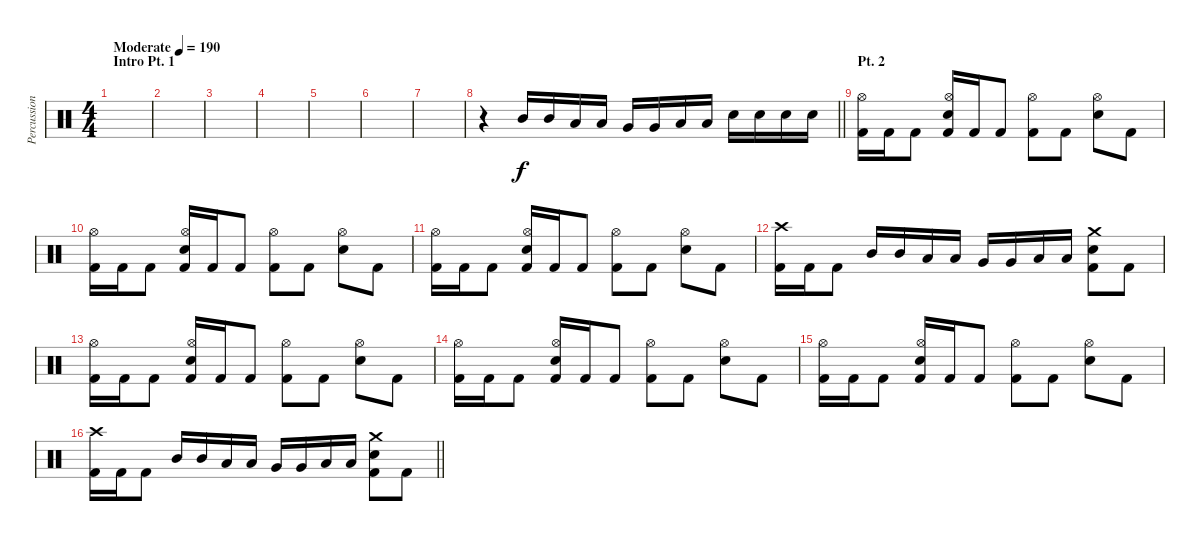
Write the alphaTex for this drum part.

\track ("Percussion" "Percussion") {instrument percussion}
\staff {score}
\articulation defaults
\ts (4 4)
\section ("" "Intro Pt. 1")
\tempo (190 "Moderate")
\clef neutral
\ks c
|
|
|
|
|
|
|
\barLineRight lightlight
r.4 "Mid Tom (hit)".16 "Mid Tom (hit)".16 "Low Tom (hit)".16 "Low Tom (hit)".16 "Very Low Tom (hit)".16 "Very Low Tom (hit)".16 "Low Floor Tom (hit)".16 "Low Floor Tom (hit)".16 "Electric Snare (hit)".16 "Electric Snare (hit)".16 "Electric Snare (hit)".16 "Electric Snare (hit)".16 |
\section ("" "Pt. 2")
("Hi-Hat (open)" "Kick (hit) 2").16 "Kick (hit) 2".16 "Kick (hit) 2".8 ("Hi-Hat (open)" "Electric Snare (hit)" "Kick (hit) 2").16 "Kick (hit) 2".16 "Kick (hit) 2".8 ("Hi-Hat (open)" "Kick (hit) 2").8 "Kick (hit) 2".8 ("Hi-Hat (open)" "Electric Snare (hit)").8 "Kick (hit) 2".8 |
("Hi-Hat (open)" "Kick (hit) 2").16 "Kick (hit) 2".16 "Kick (hit) 2".8 ("Hi-Hat (open)" "Electric Snare (hit)" "Kick (hit) 2").16 "Kick (hit) 2".16 "Kick (hit) 2".8 ("Hi-Hat (open)" "Kick (hit) 2").8 "Kick (hit) 2".8 ("Hi-Hat (open)" "Electric Snare (hit)").8 "Kick (hit) 2".8 |
("Hi-Hat (open)" "Kick (hit) 2").16 "Kick (hit) 2".16 "Kick (hit) 2".8 ("Hi-Hat (open)" "Electric Snare (hit)" "Kick (hit) 2").16 "Kick (hit) 2".16 "Kick (hit) 2".8 ("Hi-Hat (open)" "Kick (hit) 2").8 "Kick (hit) 2".8 ("Hi-Hat (open)" "Electric Snare (hit)").8 "Kick (hit) 2".8 |
("Crash high (hit)" "Kick (hit) 2").16 "Kick (hit) 2".16 "Kick (hit) 2".8 "Mid Tom (hit)".16 "Mid Tom (hit)".16 "Low Tom (hit)".16 "Low Tom (hit)".16 "Very Low Tom (hit)".16 "Very Low Tom (hit)".16 "Low Floor Tom (hit)".16 "Low Floor Tom (hit)".16 ("Crash medium (hit)" "Electric Snare (hit)" "Kick (hit) 2").8 "Kick (hit) 2".8 |
("Hi-Hat (open)" "Kick (hit) 2").16 "Kick (hit) 2".16 "Kick (hit) 2".8 ("Hi-Hat (open)" "Electric Snare (hit)" "Kick (hit) 2").16 "Kick (hit) 2".16 "Kick (hit) 2".8 ("Hi-Hat (open)" "Kick (hit) 2").8 "Kick (hit) 2".8 ("Hi-Hat (open)" "Electric Snare (hit)").8 "Kick (hit) 2".8 |
("Hi-Hat (open)" "Kick (hit) 2").16 "Kick (hit) 2".16 "Kick (hit) 2".8 ("Hi-Hat (open)" "Electric Snare (hit)" "Kick (hit) 2").16 "Kick (hit) 2".16 "Kick (hit) 2".8 ("Hi-Hat (open)" "Kick (hit) 2").8 "Kick (hit) 2".8 ("Hi-Hat (open)" "Electric Snare (hit)").8 "Kick (hit) 2".8 |
("Hi-Hat (open)" "Kick (hit) 2").16 "Kick (hit) 2".16 "Kick (hit) 2".8 ("Hi-Hat (open)" "Electric Snare (hit)" "Kick (hit) 2").16 "Kick (hit) 2".16 "Kick (hit) 2".8 ("Hi-Hat (open)" "Kick (hit) 2").8 "Kick (hit) 2".8 ("Hi-Hat (open)" "Electric Snare (hit)").8 "Kick (hit) 2".8 |
\barLineRight lightlight
("Crash high (hit)" "Kick (hit) 2").16 "Kick (hit) 2".16 "Kick (hit) 2".8 "Mid Tom (hit)".16 "Mid Tom (hit)".16 "Low Tom (hit)".16 "Low Tom (hit)".16 "Very Low Tom (hit)".16 "Very Low Tom (hit)".16 "Low Floor Tom (hit)".16 "Low Floor Tom (hit)".16 ("Crash medium (hit)" "Electric Snare (hit)" "Kick (hit) 2").8 "Kick (hit) 2".8
